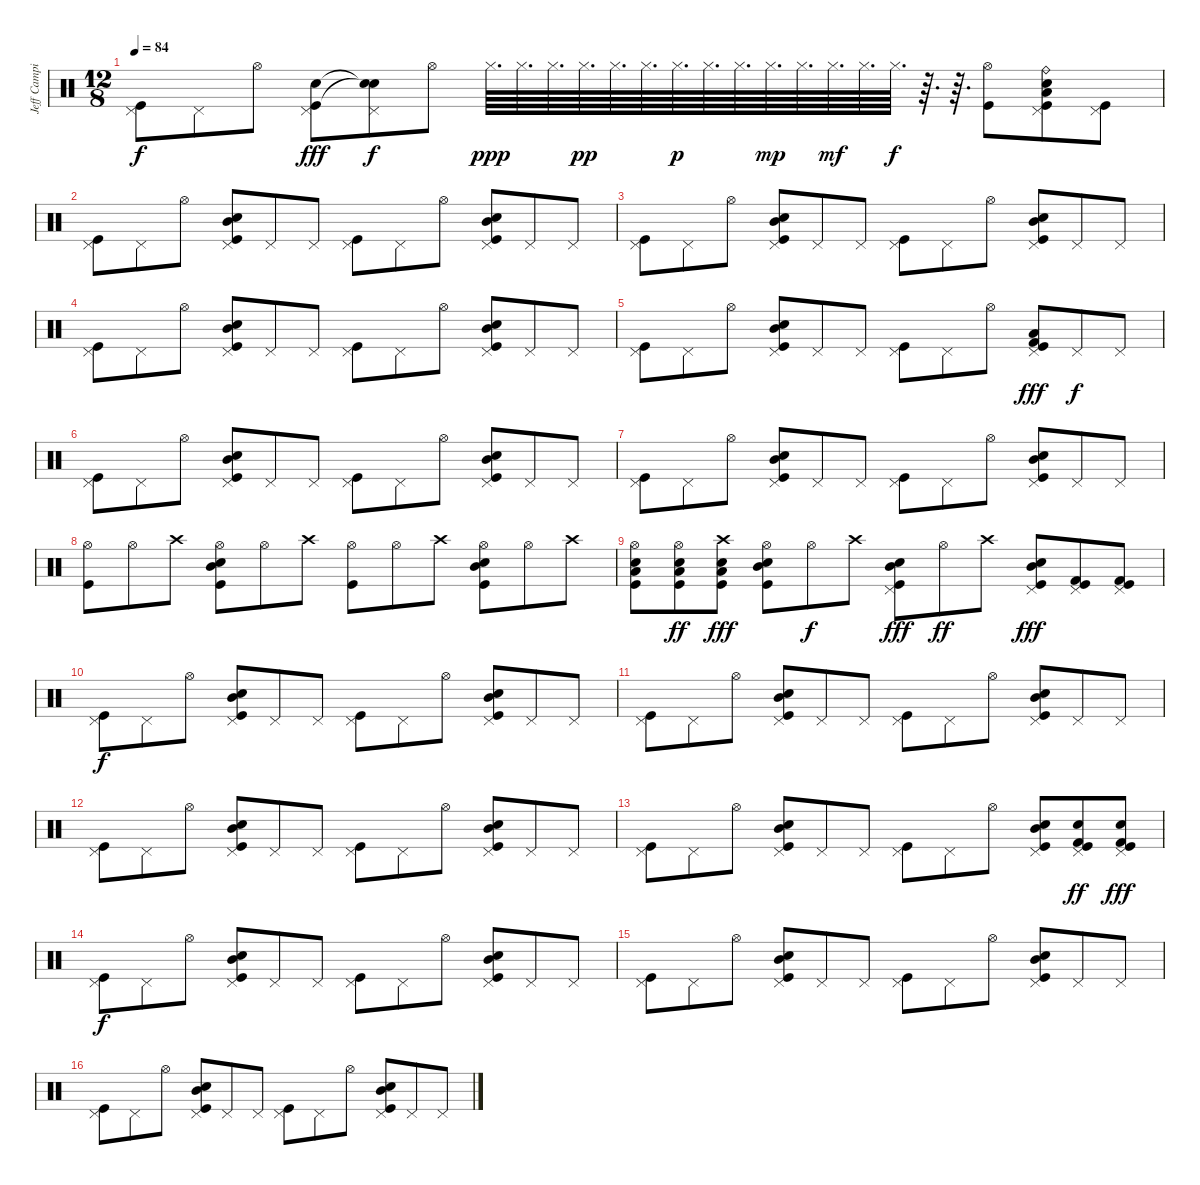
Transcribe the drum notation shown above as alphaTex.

\track ("Jeff Campitelli" "Jeff Campi") {instrument percussion}
\staff {score}
\articulation defaults
\ts (12 8)
\tempo 84
\clef neutral
\ks c
("Pedal Hi-Hat (hit)" "Kick (hit)").8{dy f} "Pedal Hi-Hat (hit)".8 "Hi-Hat (open)".8 ("Pedal Hi-Hat (hit)" "Snare (hit) 2" "Kick (hit)").8{dy fff} ("Pedal Hi-Hat (hit)" "Snare (hit)"{t} "Snare (hit)"{t}).8{dy f} "Hi-Hat (open)".8 "Hi-Hat (closed)".64{d dy ppp} "Hi-Hat (closed)".64{d} "Hi-Hat (closed)".64{d} "Hi-Hat (closed)".64{d dy pp} "Hi-Hat (closed)".64{d} "Hi-Hat (closed)".64{d} "Hi-Hat (closed)".64{d dy p} "Hi-Hat (closed)".64{d} "Hi-Hat (closed)".64{d} "Hi-Hat (closed)".64{d dy mp} "Hi-Hat (closed)".64{d} "Hi-Hat (closed)".64{d dy mf} "Hi-Hat (closed)".64{d} "Hi-Hat (closed)".64{d dy f} r.64{d} r.64{d} ("Hi-Hat (open)" "Kick (hit)").8 ("Pedal Hi-Hat (hit)" "Ride (bell)" "Snare (hit) 2" "Low Tom (hit)" "Kick (hit)").8 ("Pedal Hi-Hat (hit)" "Kick (hit)").8 |
("Pedal Hi-Hat (hit)" "Kick (hit)").8 "Pedal Hi-Hat (hit)".8 "Hi-Hat (open)".8 ("Pedal Hi-Hat (hit)" "Snare (hit) 2" "Mid Tom (hit)" "Kick (hit)").8 "Pedal Hi-Hat (hit)".8 "Pedal Hi-Hat (hit)".8 ("Pedal Hi-Hat (hit)" "Kick (hit)").8 "Pedal Hi-Hat (hit)".8 "Hi-Hat (open)".8 ("Pedal Hi-Hat (hit)" "Snare (hit) 2" "Mid Tom (hit)" "Kick (hit)").8 "Pedal Hi-Hat (hit)".8 "Pedal Hi-Hat (hit)".8 |
("Pedal Hi-Hat (hit)" "Kick (hit)").8 "Pedal Hi-Hat (hit)".8 "Hi-Hat (open)".8 ("Pedal Hi-Hat (hit)" "Snare (hit) 2" "Mid Tom (hit)" "Kick (hit)").8 "Pedal Hi-Hat (hit)".8 "Pedal Hi-Hat (hit)".8 ("Pedal Hi-Hat (hit)" "Kick (hit)").8 "Pedal Hi-Hat (hit)".8 "Hi-Hat (open)".8 ("Pedal Hi-Hat (hit)" "Snare (hit) 2" "Mid Tom (hit)" "Kick (hit)").8 "Pedal Hi-Hat (hit)".8 "Pedal Hi-Hat (hit)".8 |
("Pedal Hi-Hat (hit)" "Kick (hit)").8 "Pedal Hi-Hat (hit)".8 "Hi-Hat (open)".8 ("Pedal Hi-Hat (hit)" "Snare (hit) 2" "Mid Tom (hit)" "Kick (hit)").8 "Pedal Hi-Hat (hit)".8 "Pedal Hi-Hat (hit)".8 ("Pedal Hi-Hat (hit)" "Kick (hit)").8 "Pedal Hi-Hat (hit)".8 "Hi-Hat (open)".8 ("Pedal Hi-Hat (hit)" "Snare (hit) 2" "Mid Tom (hit)" "Kick (hit)").8 "Pedal Hi-Hat (hit)".8 "Pedal Hi-Hat (hit)".8 |
("Pedal Hi-Hat (hit)" "Kick (hit)").8 "Pedal Hi-Hat (hit)".8 "Hi-Hat (open)".8 ("Pedal Hi-Hat (hit)" "Snare (hit) 2" "Mid Tom (hit)" "Kick (hit)").8 "Pedal Hi-Hat (hit)".8 "Pedal Hi-Hat (hit)".8 ("Pedal Hi-Hat (hit)" "Kick (hit)").8 "Pedal Hi-Hat (hit)".8 "Hi-Hat (open)".8 ("Pedal Hi-Hat (hit)" "Low Tom (hit)" "Kick (hit) 2" "Kick (hit)").8{dy fff} "Pedal Hi-Hat (hit)".8{dy f} "Pedal Hi-Hat (hit)".8 |
("Pedal Hi-Hat (hit)" "Kick (hit)").8 "Pedal Hi-Hat (hit)".8 "Hi-Hat (open)".8 ("Pedal Hi-Hat (hit)" "Snare (hit) 2" "Mid Tom (hit)" "Kick (hit)").8 "Pedal Hi-Hat (hit)".8 "Pedal Hi-Hat (hit)".8 ("Pedal Hi-Hat (hit)" "Kick (hit)").8 "Pedal Hi-Hat (hit)".8 "Hi-Hat (open)".8 ("Pedal Hi-Hat (hit)" "Snare (hit) 2" "Mid Tom (hit)" "Kick (hit)").8 "Pedal Hi-Hat (hit)".8 "Pedal Hi-Hat (hit)".8 |
("Pedal Hi-Hat (hit)" "Kick (hit)").8 "Pedal Hi-Hat (hit)".8 "Hi-Hat (open)".8 ("Pedal Hi-Hat (hit)" "Snare (hit) 2" "Mid Tom (hit)" "Kick (hit)").8 "Pedal Hi-Hat (hit)".8 "Pedal Hi-Hat (hit)".8 ("Pedal Hi-Hat (hit)" "Kick (hit)").8 "Pedal Hi-Hat (hit)".8 "Hi-Hat (open)".8 ("Pedal Hi-Hat (hit)" "Snare (hit) 2" "Mid Tom (hit)" "Kick (hit)").8 "Pedal Hi-Hat (hit)".8 "Pedal Hi-Hat (hit)".8 |
("Hi-Hat (open)" "Kick (hit)").8 "Hi-Hat (open)".8 "Crash high (hit)".8 ("Hi-Hat (open)" "Snare (hit) 2" "Mid Tom (hit)" "Kick (hit)").8 "Hi-Hat (open)".8 "Crash high (hit)".8 ("Hi-Hat (open)" "Kick (hit)").8 "Hi-Hat (open)".8 "Crash high (hit)".8 ("Hi-Hat (open)" "Snare (hit) 2" "Mid Tom (hit)" "Kick (hit)").8 "Hi-Hat (open)".8 "Crash high (hit)".8 |
("Hi-Hat (open)" "Snare (hit) 2" "Low Tom (hit)" "Kick (hit)").8 ("Hi-Hat (open)" "Snare (hit) 2" "Low Tom (hit)" "Kick (hit)").8{dy ff} ("Crash high (hit)" "Snare (hit) 2" "Low Tom (hit)" "Kick (hit)").8{dy fff} ("Hi-Hat (open)" "Snare (hit) 2" "Mid Tom (hit)" "Kick (hit)").8 "Hi-Hat (open)".8{dy f} "Crash high (hit)".8 ("Pedal Hi-Hat (hit)" "Snare (hit) 2" "Mid Tom (hit)" "Kick (hit)").8{dy fff} "Hi-Hat (open)".8{dy ff} "Crash high (hit)".8 ("Pedal Hi-Hat (hit)" "Snare (hit) 2" "Mid Tom (hit)" "Kick (hit)").8{dy fff} ("Pedal Hi-Hat (hit)" "Kick (hit) 2" "Kick (hit)").8 ("Pedal Hi-Hat (hit)" "Kick (hit) 2" "Kick (hit)").8 |
("Pedal Hi-Hat (hit)" "Kick (hit)").8{dy f volume 16} "Pedal Hi-Hat (hit)".8 "Hi-Hat (open)".8 ("Pedal Hi-Hat (hit)" "Snare (hit) 2" "Mid Tom (hit)" "Kick (hit)").8 "Pedal Hi-Hat (hit)".8 "Pedal Hi-Hat (hit)".8 ("Pedal Hi-Hat (hit)" "Kick (hit)").8 "Pedal Hi-Hat (hit)".8 "Hi-Hat (open)".8 ("Pedal Hi-Hat (hit)" "Snare (hit) 2" "Mid Tom (hit)" "Kick (hit)").8 "Pedal Hi-Hat (hit)".8 "Pedal Hi-Hat (hit)".8 |
("Pedal Hi-Hat (hit)" "Kick (hit)").8 "Pedal Hi-Hat (hit)".8 "Hi-Hat (open)".8 ("Pedal Hi-Hat (hit)" "Snare (hit) 2" "Mid Tom (hit)" "Kick (hit)").8 "Pedal Hi-Hat (hit)".8 "Pedal Hi-Hat (hit)".8 ("Pedal Hi-Hat (hit)" "Kick (hit)").8 "Pedal Hi-Hat (hit)".8 "Hi-Hat (open)".8 ("Pedal Hi-Hat (hit)" "Snare (hit) 2" "Mid Tom (hit)" "Kick (hit)").8 "Pedal Hi-Hat (hit)".8 "Pedal Hi-Hat (hit)".8 |
("Pedal Hi-Hat (hit)" "Kick (hit)").8 "Pedal Hi-Hat (hit)".8 "Hi-Hat (open)".8 ("Pedal Hi-Hat (hit)" "Snare (hit) 2" "Mid Tom (hit)" "Kick (hit)").8 "Pedal Hi-Hat (hit)".8 "Pedal Hi-Hat (hit)".8 ("Pedal Hi-Hat (hit)" "Kick (hit)").8 "Pedal Hi-Hat (hit)".8 "Hi-Hat (open)".8 ("Pedal Hi-Hat (hit)" "Snare (hit) 2" "Mid Tom (hit)" "Kick (hit)").8 "Pedal Hi-Hat (hit)".8 "Pedal Hi-Hat (hit)".8 |
("Pedal Hi-Hat (hit)" "Kick (hit)").8 "Pedal Hi-Hat (hit)".8 "Hi-Hat (open)".8 ("Pedal Hi-Hat (hit)" "Snare (hit) 2" "Mid Tom (hit)" "Kick (hit)").8 "Pedal Hi-Hat (hit)".8 "Pedal Hi-Hat (hit)".8 ("Pedal Hi-Hat (hit)" "Kick (hit)").8 "Pedal Hi-Hat (hit)".8 "Hi-Hat (open)".8 ("Pedal Hi-Hat (hit)" "Snare (hit) 2" "Mid Tom (hit)" "Kick (hit)").8 ("Pedal Hi-Hat (hit)" "Snare (hit) 2" "Kick (hit) 2" "Kick (hit)").8{dy ff} ("Pedal Hi-Hat (hit)" "Snare (hit) 2" "Kick (hit) 2" "Kick (hit)").8{dy fff} |
("Pedal Hi-Hat (hit)" "Kick (hit)").8{dy f} "Pedal Hi-Hat (hit)".8 "Hi-Hat (open)".8 ("Pedal Hi-Hat (hit)" "Snare (hit) 2" "Mid Tom (hit)" "Kick (hit)").8 "Pedal Hi-Hat (hit)".8 "Pedal Hi-Hat (hit)".8 ("Pedal Hi-Hat (hit)" "Kick (hit)").8 "Pedal Hi-Hat (hit)".8 "Hi-Hat (open)".8 ("Pedal Hi-Hat (hit)" "Snare (hit) 2" "Mid Tom (hit)" "Kick (hit)").8 "Pedal Hi-Hat (hit)".8 "Pedal Hi-Hat (hit)".8 |
("Pedal Hi-Hat (hit)" "Kick (hit)").8 "Pedal Hi-Hat (hit)".8 "Hi-Hat (open)".8 ("Pedal Hi-Hat (hit)" "Snare (hit) 2" "Mid Tom (hit)" "Kick (hit)").8 "Pedal Hi-Hat (hit)".8 "Pedal Hi-Hat (hit)".8 ("Pedal Hi-Hat (hit)" "Kick (hit)").8 "Pedal Hi-Hat (hit)".8 "Hi-Hat (open)".8 ("Pedal Hi-Hat (hit)" "Snare (hit) 2" "Mid Tom (hit)" "Kick (hit)").8 "Pedal Hi-Hat (hit)".8 "Pedal Hi-Hat (hit)".8 |
("Pedal Hi-Hat (hit)" "Kick (hit)").8 "Pedal Hi-Hat (hit)".8 "Hi-Hat (open)".8 ("Pedal Hi-Hat (hit)" "Snare (hit) 2" "Mid Tom (hit)" "Kick (hit)").8 "Pedal Hi-Hat (hit)".8 "Pedal Hi-Hat (hit)".8 ("Pedal Hi-Hat (hit)" "Kick (hit)").8 "Pedal Hi-Hat (hit)".8 "Hi-Hat (open)".8 ("Pedal Hi-Hat (hit)" "Snare (hit) 2" "Mid Tom (hit)" "Kick (hit)").8 "Pedal Hi-Hat (hit)".8 "Pedal Hi-Hat (hit)".8
